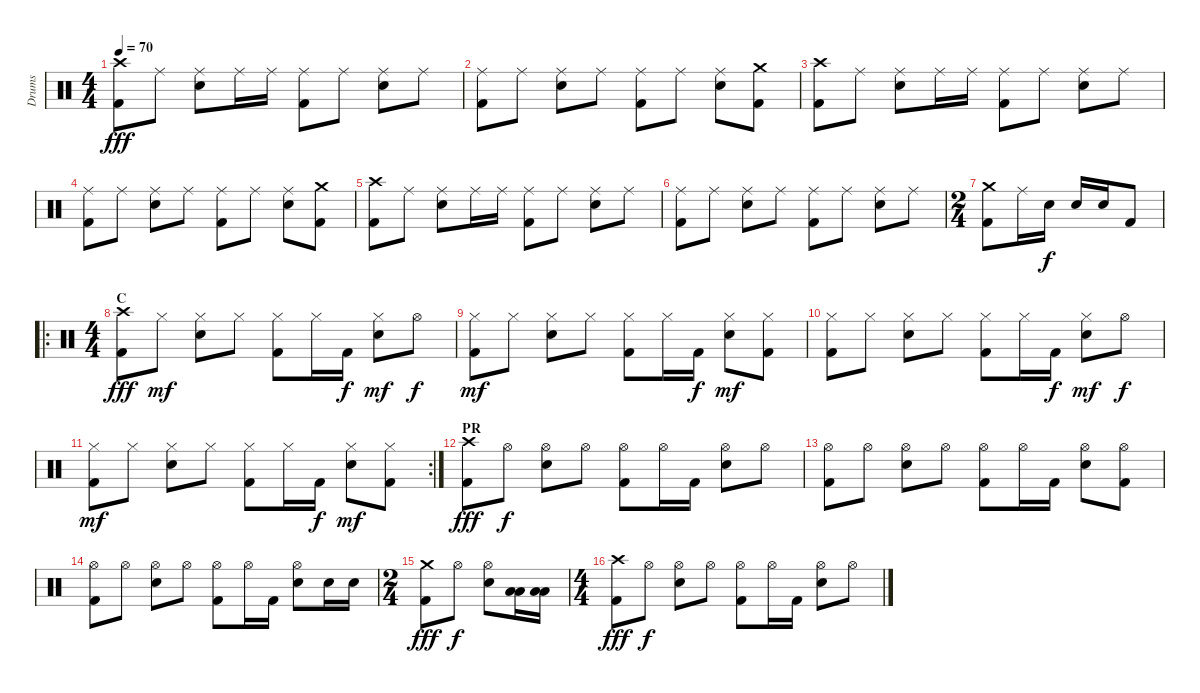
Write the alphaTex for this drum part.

\track ("Drums" "Drums") {instrument percussion}
\staff {score}
\articulation defaults
\ts (4 4)
\tempo 70
\clef neutral
\ks c
("Kick (hit) 2" "Crash high (hit)").8{dy fff} "Ride (middle)".8 ("Electric Snare (hit)" "Ride (middle)").8 "Ride (middle)".16 "Ride (middle)".16 ("Kick (hit) 2" "Ride (middle)").8 "Ride (middle)".8 ("Electric Snare (hit)" "Ride (middle)").8 "Ride (middle)".8 |
("Kick (hit) 2" "Ride (middle)").8 "Ride (middle)".8 ("Electric Snare (hit)" "Ride (middle)").8 "Ride (middle)".8 ("Kick (hit) 2" "Ride (middle)").8 "Ride (middle)".8 ("Electric Snare (hit)" "Ride (middle)").8 ("Kick (hit) 2" "Crash medium (hit)").8 |
("Kick (hit) 2" "Crash high (hit)").8 "Ride (middle)".8 ("Electric Snare (hit)" "Ride (middle)").8 "Ride (middle)".16 "Ride (middle)".16 ("Kick (hit) 2" "Ride (middle)").8 "Ride (middle)".8 ("Electric Snare (hit)" "Ride (middle)").8 "Ride (middle)".8 |
("Kick (hit) 2" "Ride (middle)").8 "Ride (middle)".8 ("Electric Snare (hit)" "Ride (middle)").8 "Ride (middle)".8 ("Kick (hit) 2" "Ride (middle)").8 "Ride (middle)".8 ("Electric Snare (hit)" "Ride (middle)").8 ("Kick (hit) 2" "Crash medium (hit)").8 |
("Kick (hit) 2" "Crash high (hit)").8 "Ride (middle)".8 ("Electric Snare (hit)" "Ride (middle)").8 "Ride (middle)".16 "Ride (middle)".16 ("Kick (hit) 2" "Ride (middle)").8 "Ride (middle)".8 ("Electric Snare (hit)" "Ride (middle)").8 "Ride (middle)".8 |
("Kick (hit) 2" "Ride (middle)").8 "Ride (middle)".8 ("Electric Snare (hit)" "Ride (middle)").8 "Ride (middle)".8 ("Kick (hit) 2" "Ride (middle)").8 "Ride (middle)".8 ("Electric Snare (hit)" "Ride (middle)").8 "Ride (middle)".8 |
\ts (2 4)
("Kick (hit) 2" "Crash medium (hit)").8 "Ride (middle)".16 "Electric Snare (hit)".16{dy f} "Electric Snare (hit)".16 "Electric Snare (hit)".16 "Kick (hit) 2".8 |
\ro
\ts (4 4)
\section ("" "C")
("Kick (hit) 2" "Crash high (hit)").8{dy fff} "Hi-Hat (closed)".8{dy mf} ("Electric Snare (hit)" "Hi-Hat (closed)").8 "Hi-Hat (closed)".8 ("Kick (hit) 2" "Hi-Hat (closed)").8 "Hi-Hat (closed)".16 "Kick (hit) 2".16{dy f} ("Electric Snare (hit)" "Hi-Hat (closed)").8{dy mf} "Hi-Hat (open)".8{dy f} |
("Kick (hit) 2" "Hi-Hat (closed)").8{dy mf} "Hi-Hat (closed)".8 ("Electric Snare (hit)" "Hi-Hat (closed)").8 "Hi-Hat (closed)".8 ("Kick (hit) 2" "Hi-Hat (closed)").8 "Hi-Hat (closed)".16 "Kick (hit) 2".16{dy f} ("Electric Snare (hit)" "Hi-Hat (closed)").8{dy mf} ("Kick (hit) 2" "Hi-Hat (closed)").8 |
("Kick (hit) 2" "Hi-Hat (closed)").8 "Hi-Hat (closed)".8 ("Electric Snare (hit)" "Hi-Hat (closed)").8 "Hi-Hat (closed)".8 ("Kick (hit) 2" "Hi-Hat (closed)").8 "Hi-Hat (closed)".16 "Kick (hit) 2".16{dy f} ("Electric Snare (hit)" "Hi-Hat (closed)").8{dy mf} "Hi-Hat (open)".8{dy f} |
\rc 2
("Kick (hit) 2" "Hi-Hat (closed)").8{dy mf} "Hi-Hat (closed)".8 ("Electric Snare (hit)" "Hi-Hat (closed)").8 "Hi-Hat (closed)".8 ("Kick (hit) 2" "Hi-Hat (closed)").8 "Hi-Hat (closed)".16 "Kick (hit) 2".16{dy f} ("Electric Snare (hit)" "Hi-Hat (closed)").8{dy mf} ("Kick (hit) 2" "Hi-Hat (closed)").8 |
\section ("" "PR")
("Kick (hit) 2" "Crash high (hit)").8{dy fff} "Hi-Hat (open)".8{dy f} ("Electric Snare (hit)" "Hi-Hat (open)").8 "Hi-Hat (open)".8 ("Kick (hit) 2" "Hi-Hat (open)").8 "Hi-Hat (open)".16 "Kick (hit) 2".16 ("Electric Snare (hit)" "Hi-Hat (open)").8 "Hi-Hat (open)".8 |
("Kick (hit) 2" "Hi-Hat (open)").8 "Hi-Hat (open)".8 ("Electric Snare (hit)" "Hi-Hat (open)").8 "Hi-Hat (open)".8 ("Kick (hit) 2" "Hi-Hat (open)").8 "Hi-Hat (open)".16 "Kick (hit) 2".16 ("Electric Snare (hit)" "Hi-Hat (open)").8 ("Kick (hit) 2" "Hi-Hat (open)").8 |
("Kick (hit) 2" "Hi-Hat (open)").8 "Hi-Hat (open)".8 ("Electric Snare (hit)" "Hi-Hat (open)").8 "Hi-Hat (open)".8 ("Kick (hit) 2" "Hi-Hat (open)").8 "Hi-Hat (open)".16 "Kick (hit) 2".16 ("Electric Snare (hit)" "Hi-Hat (open)").8 "Electric Snare (hit)".16 "Electric Snare (hit)".16 |
\ts (2 4)
("Kick (hit) 2" "Crash medium (hit)").8{dy fff} "Hi-Hat (open)".8{dy f} ("Electric Snare (hit)" "Hi-Hat (open)").8 ("Low Tom (hit)" "Low Tom (hit)").16 ("Low Tom (hit)" "Low Tom (hit)").16 |
\ts (4 4)
("Kick (hit) 2" "Crash high (hit)").8{dy fff} "Hi-Hat (open)".8{dy f} ("Electric Snare (hit)" "Hi-Hat (open)").8 "Hi-Hat (open)".8 ("Kick (hit) 2" "Hi-Hat (open)").8 "Hi-Hat (open)".16 "Kick (hit) 2".16 ("Electric Snare (hit)" "Hi-Hat (open)").8 "Hi-Hat (open)".8
